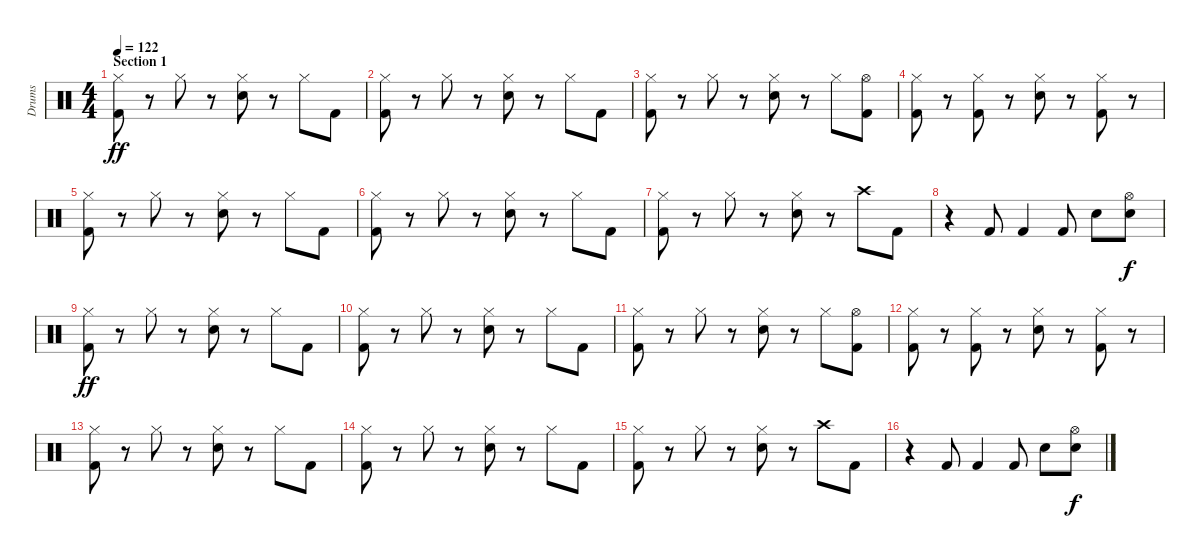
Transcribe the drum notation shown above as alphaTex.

\track ("Drums" "Drums") {instrument percussion}
\staff {score}
\articulation defaults
\ts (4 4)
\section ("" "Section 1")
\tempo 122
\clef neutral
\ks c
("Hi-Hat (closed)" "Kick (hit) 2").8{dy ff} r.8 "Hi-Hat (closed)".8 r.8 ("Hi-Hat (closed)" "Snare (hit) 2").8 r.8 "Hi-Hat (closed)".8 "Kick (hit) 2".8 |
("Hi-Hat (closed)" "Kick (hit) 2").8 r.8 "Hi-Hat (closed)".8 r.8 ("Hi-Hat (closed)" "Snare (hit) 2").8 r.8 "Hi-Hat (closed)".8 "Kick (hit) 2".8 |
("Hi-Hat (closed)" "Kick (hit) 2").8 r.8 "Hi-Hat (closed)".8 r.8 ("Hi-Hat (closed)" "Snare (hit) 2").8 r.8 "Hi-Hat (closed)".8 ("Hi-Hat (open)" "Kick (hit) 2").8 |
("Hi-Hat (closed)" "Kick (hit) 2").8 r.8 ("Hi-Hat (closed)" "Kick (hit) 2").8 r.8 ("Hi-Hat (closed)" "Snare (hit) 2").8 r.8 ("Hi-Hat (closed)" "Kick (hit) 2").8 r.8 |
("Hi-Hat (closed)" "Kick (hit) 2").8 r.8 "Hi-Hat (closed)".8 r.8 ("Hi-Hat (closed)" "Snare (hit) 2").8 r.8 "Hi-Hat (closed)".8 "Kick (hit) 2".8 |
("Hi-Hat (closed)" "Kick (hit) 2").8 r.8 "Hi-Hat (closed)".8 r.8 ("Hi-Hat (closed)" "Snare (hit) 2").8 r.8 "Hi-Hat (closed)".8 "Kick (hit) 2".8 |
("Hi-Hat (closed)" "Kick (hit) 2").8 r.8 "Hi-Hat (closed)".8 r.8 ("Hi-Hat (closed)" "Snare (hit) 2").8 r.8 "Crash high (hit)".8 "Kick (hit) 2".8 |
r.4 "Kick (hit) 2".8 "Kick (hit) 2".4 "Kick (hit) 2".8 "Snare (hit) 2".8 ("Hi-Hat (open)" "Snare (hit) 2").8{dy f} |
("Hi-Hat (closed)" "Kick (hit) 2").8{dy ff} r.8 "Hi-Hat (closed)".8 r.8 ("Hi-Hat (closed)" "Snare (hit) 2").8 r.8 "Hi-Hat (closed)".8 "Kick (hit) 2".8 |
("Hi-Hat (closed)" "Kick (hit) 2").8 r.8 "Hi-Hat (closed)".8 r.8 ("Hi-Hat (closed)" "Snare (hit) 2").8 r.8 "Hi-Hat (closed)".8 "Kick (hit) 2".8 |
("Hi-Hat (closed)" "Kick (hit) 2").8 r.8 "Hi-Hat (closed)".8 r.8 ("Hi-Hat (closed)" "Snare (hit) 2").8 r.8 "Hi-Hat (closed)".8 ("Hi-Hat (open)" "Kick (hit) 2").8 |
("Hi-Hat (closed)" "Kick (hit) 2").8 r.8 ("Hi-Hat (closed)" "Kick (hit) 2").8 r.8 ("Hi-Hat (closed)" "Snare (hit) 2").8 r.8 ("Hi-Hat (closed)" "Kick (hit) 2").8 r.8 |
("Hi-Hat (closed)" "Kick (hit) 2").8 r.8 "Hi-Hat (closed)".8 r.8 ("Hi-Hat (closed)" "Snare (hit) 2").8 r.8 "Hi-Hat (closed)".8 "Kick (hit) 2".8 |
("Hi-Hat (closed)" "Kick (hit) 2").8 r.8 "Hi-Hat (closed)".8 r.8 ("Hi-Hat (closed)" "Snare (hit) 2").8 r.8 "Hi-Hat (closed)".8 "Kick (hit) 2".8 |
("Hi-Hat (closed)" "Kick (hit) 2").8 r.8 "Hi-Hat (closed)".8 r.8 ("Hi-Hat (closed)" "Snare (hit) 2").8 r.8 "Crash high (hit)".8 "Kick (hit) 2".8 |
r.4 "Kick (hit) 2".8 "Kick (hit) 2".4 "Kick (hit) 2".8 "Snare (hit) 2".8 ("Hi-Hat (open)" "Snare (hit) 2").8{dy f}
